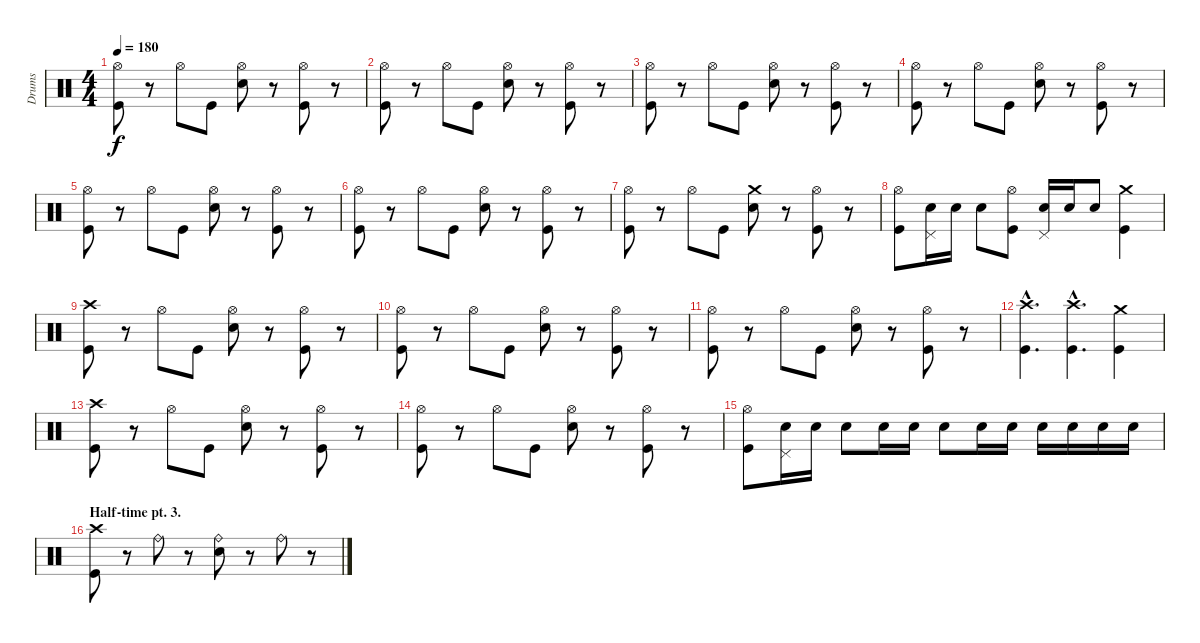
\track ("Drums" "Drums") {instrument percussion}
\staff {score}
\articulation defaults
\ts (4 4)
\tempo 180
\clef neutral
\ks c
("Hi-Hat (open)" "Kick (hit)").8{dy f} r.8 "Hi-Hat (open)".8 "Kick (hit)".8 ("Hi-Hat (open)" "Electric Snare (hit)").8 r.8 ("Hi-Hat (open)" "Kick (hit)").8 r.8 |
("Hi-Hat (open)" "Kick (hit)").8 r.8 "Hi-Hat (open)".8 "Kick (hit)".8 ("Hi-Hat (open)" "Electric Snare (hit)").8 r.8 ("Hi-Hat (open)" "Kick (hit)").8 r.8 |
("Hi-Hat (open)" "Kick (hit)").8 r.8 "Hi-Hat (open)".8 "Kick (hit)".8 ("Hi-Hat (open)" "Electric Snare (hit)").8 r.8 ("Hi-Hat (open)" "Kick (hit)").8 r.8 |
("Hi-Hat (open)" "Kick (hit)").8 r.8 "Hi-Hat (open)".8 "Kick (hit)".8 ("Hi-Hat (open)" "Electric Snare (hit)").8 r.8 ("Hi-Hat (open)" "Kick (hit)").8 r.8 |
("Hi-Hat (open)" "Kick (hit)").8 r.8 "Hi-Hat (open)".8 "Kick (hit)".8 ("Hi-Hat (open)" "Electric Snare (hit)").8 r.8 ("Hi-Hat (open)" "Kick (hit)").8 r.8 |
("Hi-Hat (open)" "Kick (hit)").8 r.8 "Hi-Hat (open)".8 "Kick (hit)".8 ("Hi-Hat (open)" "Electric Snare (hit)").8 r.8 ("Hi-Hat (open)" "Kick (hit)").8 r.8 |
("Hi-Hat (open)" "Kick (hit)").8 r.8 "Hi-Hat (open)".8 "Kick (hit)".8 ("Crash medium (hit)" "Electric Snare (hit)").8 r.8 ("Hi-Hat (open)" "Kick (hit)").8 r.8 |
("Hi-Hat (open)" "Kick (hit)").8 ("Pedal Hi-Hat (hit)" "Electric Snare (hit)").16 "Electric Snare (hit)".16 "Electric Snare (hit)".8 ("Hi-Hat (open)" "Kick (hit)").8 ("Pedal Hi-Hat (hit)" "Electric Snare (hit)").16 "Electric Snare (hit)".16 "Electric Snare (hit)".8 ("Crash medium (hit)" "Kick (hit)").4 |
("Crash high (hit)" "Kick (hit)").8 r.8 "Hi-Hat (open)".8 "Kick (hit)".8 ("Hi-Hat (open)" "Electric Snare (hit)").8 r.8 ("Hi-Hat (open)" "Kick (hit)").8 r.8 |
("Hi-Hat (open)" "Kick (hit)").8 r.8 "Hi-Hat (open)".8 "Kick (hit)".8 ("Hi-Hat (open)" "Electric Snare (hit)").8 r.8 ("Hi-Hat (open)" "Kick (hit)").8 r.8 |
("Hi-Hat (open)" "Kick (hit)").8 r.8 "Hi-Hat (open)".8 "Kick (hit)".8 ("Hi-Hat (open)" "Electric Snare (hit)").8 r.8 ("Hi-Hat (open)" "Kick (hit)").8 r.8 |
("Crash high (hit)"{hac} "Kick (hit)"{hac}).4{d} ("Crash high (hit)"{hac} "Kick (hit)"{hac}).4{d} ("Crash medium (hit)" "Kick (hit)").4 |
("Crash high (hit)" "Kick (hit)").8 r.8 "Hi-Hat (open)".8 "Kick (hit)".8 ("Hi-Hat (open)" "Electric Snare (hit)").8 r.8 ("Hi-Hat (open)" "Kick (hit)").8 r.8 |
("Hi-Hat (open)" "Kick (hit)").8 r.8 "Hi-Hat (open)".8 "Kick (hit)".8 ("Hi-Hat (open)" "Electric Snare (hit)").8 r.8 ("Hi-Hat (open)" "Kick (hit)").8 r.8 |
("Hi-Hat (open)" "Kick (hit)").8 ("Pedal Hi-Hat (hit)" "Electric Snare (hit)").16 "Electric Snare (hit)".16 "Electric Snare (hit)".8 "Electric Snare (hit)".16 "Electric Snare (hit)".16 "Electric Snare (hit)".8 "Electric Snare (hit)".16 "Electric Snare (hit)".16 "Electric Snare (hit)".16 "Electric Snare (hit)".16 "Electric Snare (hit)".16 "Electric Snare (hit)".16 |
\section ("" "Half-time pt. 3.")
("Crash high (hit)" "Kick (hit)").8 r.8 "Ride (bell)".8 r.8 ("Ride (bell)" "Electric Snare (hit)").8 r.8 "Ride (bell)".8 r.8
